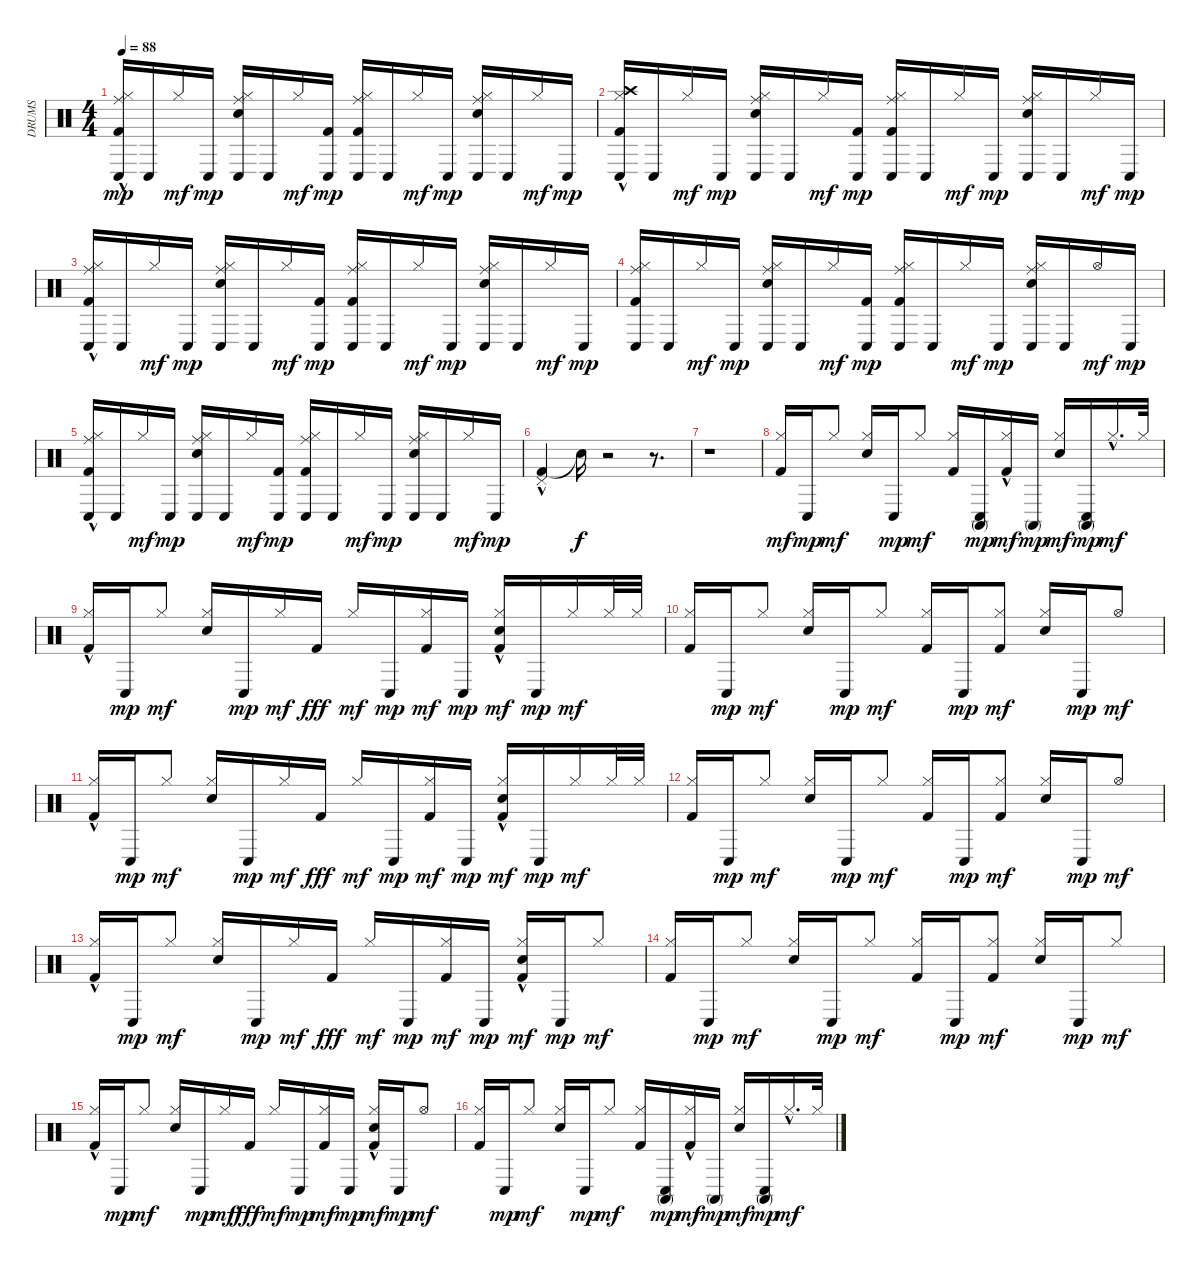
\track ("DRUMS" "DRUMS") {instrument percussion}
\staff {score}
\articulation defaults
\ts (4 4)
\tempo 88
\clef neutral
\ks c
("Kick (hit) 2"{hac} "Hi-Hat (closed)" "Conga low (hit)" "Ride (middle)").16{dy mp} "Conga low (hit)".16 "Hi-Hat (closed)".16{dy mf} "Conga low (hit)".16{dy mp} ("Snare (hit) 2" "Hi-Hat (closed)" "Conga low (hit)" "Ride (middle)").16 "Conga low (hit)".16 "Hi-Hat (closed)".16{dy mf} ("Kick (hit) 2" "Conga low (hit)").16{dy mp} ("Kick (hit) 2" "Hi-Hat (closed)" "Ride (middle)" "Conga low (hit)").16 "Conga low (hit)".16 "Hi-Hat (closed)".16{dy mf} "Conga low (hit)".16{dy mp} ("Snare (hit) 2" "Hi-Hat (closed)" "Conga low (hit)" "Ride (middle)").16 "Conga low (hit)".16 "Hi-Hat (closed)".16{dy mf} "Conga low (hit)".16{dy mp} |
("Kick (hit) 2" "Hi-Hat (closed)" "Conga low (hit)" "Crash high (hit)"{hac}).16 "Conga low (hit)".16 "Hi-Hat (closed)".16{dy mf} "Conga low (hit)".16{dy mp} ("Snare (hit) 2" "Hi-Hat (closed)" "Conga low (hit)" "Ride (middle)").16 "Conga low (hit)".16 "Hi-Hat (closed)".16{dy mf} ("Kick (hit) 2" "Conga low (hit)").16{dy mp} ("Kick (hit) 2" "Hi-Hat (closed)" "Conga low (hit)" "Ride (middle)").16 "Conga low (hit)".16 "Hi-Hat (closed)".16{dy mf} "Conga low (hit)".16{dy mp} ("Snare (hit) 2" "Hi-Hat (closed)" "Conga low (hit)" "Ride (middle)").16 "Conga low (hit)".16 "Hi-Hat (closed)".16{dy mf} "Conga low (hit)".16{dy mp} |
("Kick (hit) 2"{hac} "Hi-Hat (closed)" "Conga low (hit)" "Ride (middle)").16 "Conga low (hit)".16 "Hi-Hat (closed)".16{dy mf} "Conga low (hit)".16{dy mp} ("Snare (hit) 2" "Hi-Hat (closed)" "Conga low (hit)" "Ride (middle)").16 "Conga low (hit)".16 "Hi-Hat (closed)".16{dy mf} ("Kick (hit) 2" "Conga low (hit)").16{dy mp} ("Kick (hit) 2" "Hi-Hat (closed)" "Conga low (hit)" "Ride (middle)").16 "Conga low (hit)".16 "Hi-Hat (closed)".16{dy mf} "Conga low (hit)".16{dy mp} ("Snare (hit) 2" "Hi-Hat (closed)" "Conga low (hit)" "Ride (middle)").16 "Conga low (hit)".16 "Hi-Hat (closed)".16{dy mf} "Conga low (hit)".16{dy mp} |
("Kick (hit) 2" "Hi-Hat (closed)" "Conga low (hit)" "Ride (middle)").16 "Conga low (hit)".16 "Hi-Hat (closed)".16{dy mf} "Conga low (hit)".16{dy mp} ("Snare (hit) 2" "Hi-Hat (closed)" "Ride (middle)" "Conga low (hit)").16 "Conga low (hit)".16 "Hi-Hat (closed)".16{dy mf} ("Kick (hit) 2" "Conga low (hit)").16{dy mp} ("Kick (hit) 2" "Hi-Hat (closed)" "Conga low (hit)" "Ride (middle)").16 "Conga low (hit)".16 "Hi-Hat (closed)".16{dy mf} "Conga low (hit)".16{dy mp} ("Snare (hit) 2" "Hi-Hat (closed)" "Conga low (hit)" "Ride (middle)").16 "Conga low (hit)".16 "Hi-Hat (open)".16{dy mf} "Conga low (hit)".16{dy mp} |
("Kick (hit) 2"{hac} "Hi-Hat (closed)" "Ride (middle)" "Conga low (hit)").16 "Conga low (hit)".16 "Hi-Hat (closed)".16{dy mf} "Conga low (hit)".16{dy mp} ("Snare (hit) 2" "Hi-Hat (closed)" "Conga low (hit)" "Ride (middle)").16 "Conga low (hit)".16 "Hi-Hat (closed)".16{dy mf} ("Kick (hit) 2" "Conga low (hit)").16{dy mp} ("Kick (hit) 2" "Hi-Hat (closed)" "Conga low (hit)" "Ride (middle)").16 "Conga low (hit)".16 "Hi-Hat (closed)".16{dy mf} "Conga low (hit)".16{dy mp} ("Snare (hit) 2" "Hi-Hat (closed)" "Conga low (hit)" "Ride (middle)").16 "Conga low (hit)".16 "Hi-Hat (closed)".16{dy mf} "Conga low (hit)".16{dy mp} |
("Kick (hit) 2"{hac} "Pedal Hi-Hat (hit)").4 "Snare (hit)"{t}.16{dy f} r.2 r.8{d} |
r.1 |
("Kick (hit) 2" "Hi-Hat (closed)").16{dy mf} "Conga low (hit)".16{dy mp} "Hi-Hat (closed)".8{dy mf} ("Snare (hit) 2" "Hi-Hat (closed)").16 "Conga low (hit)".16{dy mp} "Hi-Hat (closed)".8{dy mf} ("Kick (hit) 2" "Hi-Hat (closed)").16 ("Conga low (hit)" "Conga high (mute)").16{dy mp} ("Kick (hit) 2"{hac} "Hi-Hat (closed)").16{dy mf} "Conga high (mute)".16{dy mp} ("Snare (hit) 2" "Hi-Hat (closed)").16{dy mf} ("Conga low (hit)" "Conga high (mute)").16{dy mp} "Hi-Hat (closed)"{hac}.16{d dy mf} "Hi-Hat (closed)".32 |
("Kick (hit) 2"{hac} "Hi-Hat (closed)").16 "Conga low (hit)".16{dy mp} "Hi-Hat (closed)".8{dy mf} ("Snare (hit) 2" "Hi-Hat (closed)").16 "Conga low (hit)".16{dy mp} "Hi-Hat (closed)".16{dy mf} "Kick (hit) 2".16{dy fff} "Hi-Hat (closed)".16{dy mf} "Conga low (hit)".16{dy mp} ("Kick (hit) 2" "Hi-Hat (closed)").16{dy mf} "Conga low (hit)".16{dy mp} ("Kick (hit) 2"{hac} "Snare (hit) 2" "Hi-Hat (closed)").16{dy mf} "Conga low (hit)".16{dy mp} "Hi-Hat (closed)".16{dy mf} "Hi-Hat (closed)".32 "Hi-Hat (closed)".32 |
("Kick (hit) 2" "Hi-Hat (closed)").16 "Conga low (hit)".16{dy mp} "Hi-Hat (closed)".8{dy mf} ("Snare (hit) 2" "Hi-Hat (closed)").16 "Conga low (hit)".16{dy mp} "Hi-Hat (closed)".8{dy mf} ("Kick (hit) 2" "Hi-Hat (closed)").16 "Conga low (hit)".16{dy mp} ("Kick (hit) 2" "Hi-Hat (closed)").8{dy mf} ("Snare (hit) 2" "Hi-Hat (closed)").16 "Conga low (hit)".16{dy mp} "Hi-Hat (open)".8{dy mf} |
("Kick (hit) 2"{hac} "Hi-Hat (closed)").16 "Conga low (hit)".16{dy mp} "Hi-Hat (closed)".8{dy mf} ("Snare (hit) 2" "Hi-Hat (closed)").16 "Conga low (hit)".16{dy mp} "Hi-Hat (closed)".16{dy mf} "Kick (hit) 2".16{dy fff} "Hi-Hat (closed)".16{dy mf} "Conga low (hit)".16{dy mp} ("Kick (hit) 2" "Hi-Hat (closed)").16{dy mf} "Conga low (hit)".16{dy mp} ("Kick (hit) 2"{hac} "Snare (hit) 2" "Hi-Hat (closed)").16{dy mf} "Conga low (hit)".16{dy mp} "Hi-Hat (closed)".16{dy mf} "Hi-Hat (closed)".32 "Hi-Hat (closed)".32 |
("Kick (hit) 2" "Hi-Hat (closed)").16 "Conga low (hit)".16{dy mp} "Hi-Hat (closed)".8{dy mf} ("Snare (hit) 2" "Hi-Hat (closed)").16 "Conga low (hit)".16{dy mp} "Hi-Hat (closed)".8{dy mf} ("Kick (hit) 2" "Hi-Hat (closed)").16 "Conga low (hit)".16{dy mp} ("Kick (hit) 2" "Hi-Hat (closed)").8{dy mf} ("Snare (hit) 2" "Hi-Hat (closed)").16 "Conga low (hit)".16{dy mp} "Hi-Hat (open)".8{dy mf} |
("Kick (hit) 2"{hac} "Hi-Hat (closed)").16 "Conga low (hit)".16{dy mp} "Hi-Hat (closed)".8{dy mf} ("Snare (hit) 2" "Hi-Hat (closed)").16 "Conga low (hit)".16{dy mp} "Hi-Hat (closed)".16{dy mf} "Kick (hit) 2".16{dy fff} "Hi-Hat (closed)".16{dy mf} "Conga low (hit)".16{dy mp} ("Kick (hit) 2" "Hi-Hat (closed)").16{dy mf} "Conga low (hit)".16{dy mp} ("Kick (hit) 2"{hac} "Snare (hit) 2" "Hi-Hat (closed)").16{dy mf} "Conga low (hit)".16{dy mp} "Hi-Hat (closed)".8{dy mf} |
("Kick (hit) 2" "Hi-Hat (closed)").16 "Conga low (hit)".16{dy mp} "Hi-Hat (closed)".8{dy mf} ("Snare (hit) 2" "Hi-Hat (closed)").16 "Conga low (hit)".16{dy mp} "Hi-Hat (closed)".8{dy mf} ("Kick (hit) 2" "Hi-Hat (closed)").16 "Conga low (hit)".16{dy mp} ("Kick (hit) 2" "Hi-Hat (closed)").8{dy mf} ("Snare (hit) 2" "Hi-Hat (closed)").16 "Conga low (hit)".16{dy mp} "Hi-Hat (closed)".8{dy mf} |
("Kick (hit) 2"{hac} "Hi-Hat (closed)").16 "Conga low (hit)".16{dy mp} "Hi-Hat (closed)".8{dy mf} ("Snare (hit) 2" "Hi-Hat (closed)").16 "Conga low (hit)".16{dy mp} "Hi-Hat (closed)".16{dy mf} "Kick (hit) 2".16{dy fff} "Hi-Hat (closed)".16{dy mf} "Conga low (hit)".16{dy mp} ("Kick (hit) 2" "Hi-Hat (closed)").16{dy mf} "Conga low (hit)".16{dy mp} ("Kick (hit) 2"{hac} "Snare (hit) 2" "Hi-Hat (closed)").16{dy mf} "Conga low (hit)".16{dy mp} "Hi-Hat (open)".8{dy mf} |
("Kick (hit) 2" "Hi-Hat (closed)").16 "Conga low (hit)".16{dy mp} "Hi-Hat (closed)".8{dy mf} ("Snare (hit) 2" "Hi-Hat (closed)").16 "Conga low (hit)".16{dy mp} "Hi-Hat (closed)".8{dy mf} ("Kick (hit) 2" "Hi-Hat (closed)").16 ("Conga low (hit)" "Conga high (mute)").16{dy mp} ("Kick (hit) 2"{hac} "Hi-Hat (closed)").16{dy mf} "Conga high (mute)".16{dy mp} ("Snare (hit) 2" "Hi-Hat (closed)").16{dy mf} ("Conga low (hit)" "Conga high (mute)").16{dy mp} "Hi-Hat (closed)"{hac}.16{d dy mf} "Hi-Hat (closed)".32
